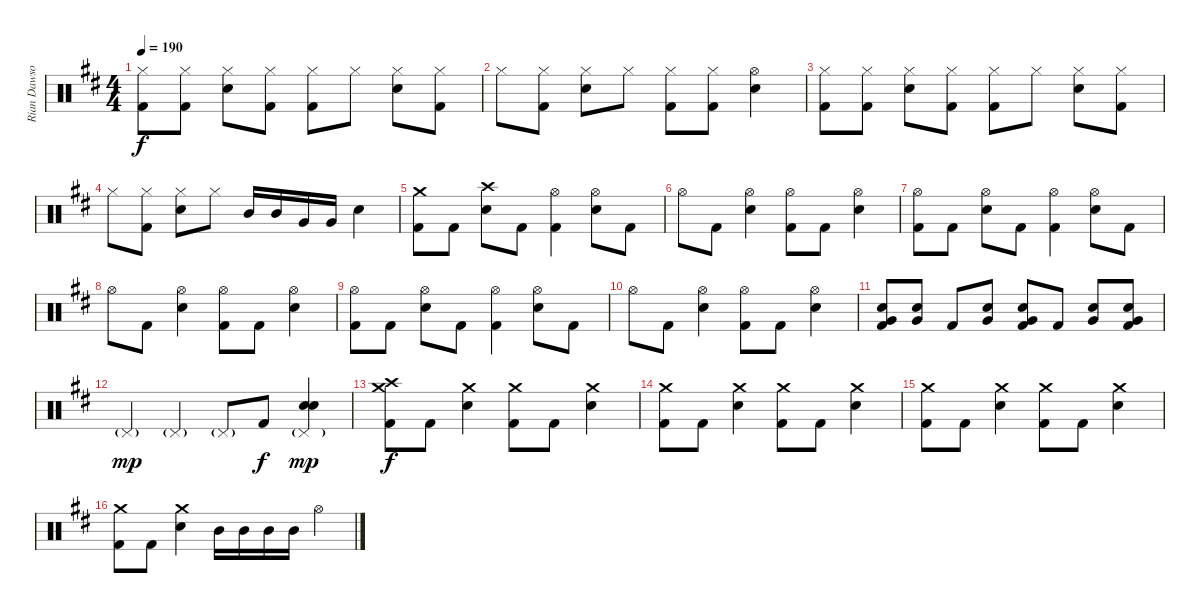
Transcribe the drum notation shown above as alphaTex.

\track ("Rian Dawson" "Rian Dawso") {instrument percussion}
\staff {score}
\articulation defaults
\ts (4 4)
\tempo 190
\clef neutral
\ks d
("Hi-Hat (closed)" "Kick (hit) 2").8{dy f} ("Hi-Hat (closed)" "Kick (hit) 2").8 ("Hi-Hat (closed)" "Electric Snare (hit)").8 ("Hi-Hat (closed)" "Kick (hit) 2").8 ("Hi-Hat (closed)" "Kick (hit) 2").8 "Hi-Hat (closed)".8 ("Hi-Hat (closed)" "Electric Snare (hit)").8 ("Hi-Hat (closed)" "Kick (hit) 2").8 |
"Hi-Hat (closed)".8 ("Hi-Hat (closed)" "Kick (hit) 2").8 ("Hi-Hat (closed)" "Electric Snare (hit)").8 "Hi-Hat (closed)".8 ("Hi-Hat (closed)" "Kick (hit) 2").8 ("Hi-Hat (closed)" "Kick (hit) 2").8 ("Hi-Hat (open)" "Electric Snare (hit)").4 |
("Hi-Hat (closed)" "Kick (hit) 2").8 ("Hi-Hat (closed)" "Kick (hit) 2").8 ("Hi-Hat (closed)" "Electric Snare (hit)").8 ("Hi-Hat (closed)" "Kick (hit) 2").8 ("Hi-Hat (closed)" "Kick (hit) 2").8 "Hi-Hat (closed)".8 ("Hi-Hat (closed)" "Electric Snare (hit)").8 ("Hi-Hat (closed)" "Kick (hit) 2").8 |
"Hi-Hat (closed)".8 ("Hi-Hat (closed)" "Kick (hit) 2").8 ("Hi-Hat (closed)" "Electric Snare (hit)").8 "Hi-Hat (closed)".8 "Mid Tom (hit)".16 "Mid Tom (hit)".16 "Very Low Tom (hit)".16 "Very Low Tom (hit)".16 "Electric Snare (hit)".4 |
("Crash medium (hit)" "Kick (hit) 2").8 "Kick (hit) 2".8 ("Crash high (hit)" "Electric Snare (hit)").8 "Kick (hit) 2".8 ("Hi-Hat (open)" "Kick (hit) 2").4 ("Hi-Hat (open)" "Electric Snare (hit)").8 "Kick (hit) 2".8 |
"Hi-Hat (open)".8 "Kick (hit) 2".8 ("Hi-Hat (open)" "Electric Snare (hit)").4 ("Hi-Hat (open)" "Kick (hit) 2").8 "Kick (hit) 2".8 ("Hi-Hat (open)" "Electric Snare (hit)").4 |
("Hi-Hat (open)" "Kick (hit) 2").8 "Kick (hit) 2".8 ("Hi-Hat (open)" "Electric Snare (hit)").8 "Kick (hit) 2".8 ("Hi-Hat (open)" "Kick (hit) 2").4 ("Hi-Hat (open)" "Electric Snare (hit)").8 "Kick (hit) 2".8 |
"Hi-Hat (open)".8 "Kick (hit) 2".8 ("Hi-Hat (open)" "Electric Snare (hit)").4 ("Hi-Hat (open)" "Kick (hit) 2").8 "Kick (hit) 2".8 ("Hi-Hat (open)" "Electric Snare (hit)").4 |
("Hi-Hat (open)" "Kick (hit) 2").8 "Kick (hit) 2".8 ("Hi-Hat (open)" "Electric Snare (hit)").8 "Kick (hit) 2".8 ("Hi-Hat (open)" "Kick (hit) 2").4 ("Hi-Hat (open)" "Electric Snare (hit)").8 "Kick (hit) 2".8 |
"Hi-Hat (open)".8 "Kick (hit) 2".8 ("Hi-Hat (open)" "Electric Snare (hit)").4 ("Hi-Hat (open)" "Kick (hit) 2").8 "Kick (hit) 2".8 ("Hi-Hat (open)" "Electric Snare (hit)").4 |
("Very Low Tom (hit)" "Electric Snare (hit)" "Kick (hit) 2").8 ("Very Low Tom (hit)" "Electric Snare (hit)").8 "Kick (hit) 2".8 ("Very Low Tom (hit)" "Electric Snare (hit)").8 ("Very Low Tom (hit)" "Electric Snare (hit)" "Kick (hit) 2").8 "Kick (hit) 2".8 ("Very Low Tom (hit)" "Electric Snare (hit)").8 ("Very Low Tom (hit)" "Electric Snare (hit)" "Kick (hit) 2").8 |
"Pedal Hi-Hat (hit)"{g}.4{dy mp} "Pedal Hi-Hat (hit)"{g}.4 "Pedal Hi-Hat (hit)"{g}.8 "Kick (hit) 2".8{dy f} ("Pedal Hi-Hat (hit)"{g} "Electric Snare (hit)" "Electric Snare (hit)").4{dy mp} |
("Crash high (hit)" "Crash medium (hit)" "Kick (hit) 2").8{dy f} "Kick (hit) 2".8 ("Crash medium (hit)" "Electric Snare (hit)").4 ("Crash medium (hit)" "Kick (hit) 2").8 "Kick (hit) 2".8 ("Crash medium (hit)" "Electric Snare (hit)").4 |
("Crash medium (hit)" "Kick (hit) 2").8 "Kick (hit) 2".8 ("Crash medium (hit)" "Electric Snare (hit)").4 ("Crash medium (hit)" "Kick (hit) 2").8 "Kick (hit) 2".8 ("Crash medium (hit)" "Electric Snare (hit)").4 |
("Crash medium (hit)" "Kick (hit) 2").8 "Kick (hit) 2".8 ("Crash medium (hit)" "Electric Snare (hit)").4 ("Crash medium (hit)" "Kick (hit) 2").8 "Kick (hit) 2".8 ("Crash medium (hit)" "Electric Snare (hit)").4 |
("Crash medium (hit)" "Kick (hit) 2").8 "Kick (hit) 2".8 ("Crash medium (hit)" "Electric Snare (hit)").4 "Mid Tom (hit)".16 "Mid Tom (hit)".16 "Mid Tom (hit)".16 "Mid Tom (hit)".16 "Hi-Hat (open)".4
